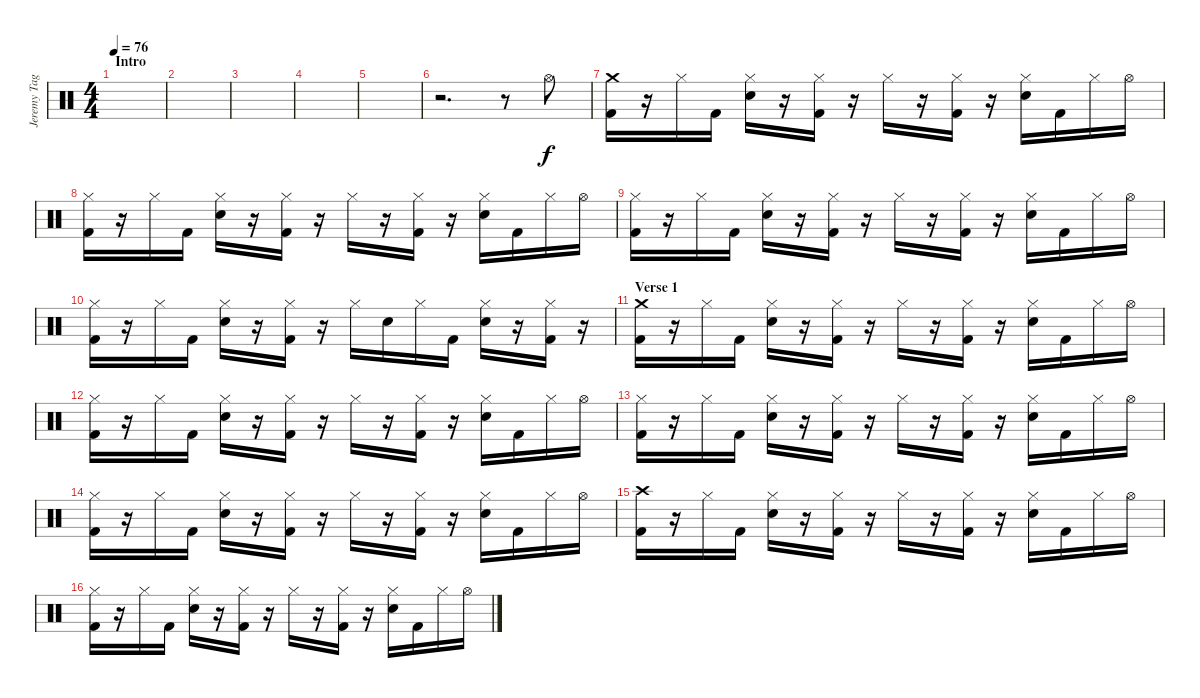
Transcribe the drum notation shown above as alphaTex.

\track ("Jeremy Taggart(Drums)" "Jeremy Tag") {instrument percussion}
\staff {score}
\articulation defaults
\ts (4 4)
\section ("" "Intro")
\tempo 76
\clef neutral
\ks c
|
|
|
|
|
r.2{d} r.8 "Hi-Hat (open)".8 |
("Crash medium (hit)" "Kick (hit) 2").16 r.16 "Hi-Hat (closed)".16 "Kick (hit) 2".16 ("Hi-Hat (closed)" "Snare (hit) 2").16 r.16 ("Hi-Hat (closed)" "Kick (hit) 2").16 r.16 "Hi-Hat (closed)".16 r.16 ("Hi-Hat (closed)" "Kick (hit) 2").16 r.16 ("Hi-Hat (closed)" "Snare (hit) 2").16 "Kick (hit) 2".16 "Hi-Hat (closed)".16 "Hi-Hat (open)".16 |
("Hi-Hat (closed)" "Kick (hit) 2").16 r.16 "Hi-Hat (closed)".16 "Kick (hit) 2".16 ("Hi-Hat (closed)" "Snare (hit) 2").16 r.16 ("Hi-Hat (closed)" "Kick (hit) 2").16 r.16 "Hi-Hat (closed)".16 r.16 ("Hi-Hat (closed)" "Kick (hit) 2").16 r.16 ("Hi-Hat (closed)" "Snare (hit) 2").16 "Kick (hit) 2".16 "Hi-Hat (closed)".16 "Hi-Hat (open)".16 |
("Hi-Hat (closed)" "Kick (hit) 2").16 r.16 "Hi-Hat (closed)".16 "Kick (hit) 2".16 ("Hi-Hat (closed)" "Snare (hit) 2").16 r.16 ("Hi-Hat (closed)" "Kick (hit) 2").16 r.16 "Hi-Hat (closed)".16 r.16 ("Hi-Hat (closed)" "Kick (hit) 2").16 r.16 ("Hi-Hat (closed)" "Snare (hit) 2").16 "Kick (hit) 2".16 "Hi-Hat (closed)".16 "Hi-Hat (open)".16 |
("Hi-Hat (closed)" "Kick (hit) 2").16 r.16 "Hi-Hat (closed)".16 "Kick (hit) 2".16 ("Hi-Hat (closed)" "Snare (hit) 2").16 r.16 ("Hi-Hat (closed)" "Kick (hit) 2").16 r.16 "Hi-Hat (closed)".16 "Snare (hit) 2".16 "Hi-Hat (closed)".16 "Kick (hit) 2".16 ("Hi-Hat (closed)" "Snare (hit) 2").16 r.16 ("Hi-Hat (closed)" "Kick (hit) 2").16 r.16 |
\section ("" "Verse 1")
("Crash medium (hit)" "Kick (hit) 2").16 r.16 "Hi-Hat (closed)".16 "Kick (hit) 2".16 ("Hi-Hat (closed)" "Snare (hit) 2").16 r.16 ("Hi-Hat (closed)" "Kick (hit) 2").16 r.16 "Hi-Hat (closed)".16 r.16 ("Hi-Hat (closed)" "Kick (hit) 2").16 r.16 ("Hi-Hat (closed)" "Snare (hit) 2").16 "Kick (hit) 2".16 "Hi-Hat (closed)".16 "Hi-Hat (open)".16 |
("Hi-Hat (closed)" "Kick (hit) 2").16 r.16 "Hi-Hat (closed)".16 "Kick (hit) 2".16 ("Hi-Hat (closed)" "Snare (hit) 2").16 r.16 ("Hi-Hat (closed)" "Kick (hit) 2").16 r.16 "Hi-Hat (closed)".16 r.16 ("Hi-Hat (closed)" "Kick (hit) 2").16 r.16 ("Hi-Hat (closed)" "Snare (hit) 2").16 "Kick (hit) 2".16 "Hi-Hat (closed)".16 "Hi-Hat (open)".16 |
("Hi-Hat (closed)" "Kick (hit) 2").16 r.16 "Hi-Hat (closed)".16 "Kick (hit) 2".16 ("Hi-Hat (closed)" "Snare (hit) 2").16 r.16 ("Hi-Hat (closed)" "Kick (hit) 2").16 r.16 "Hi-Hat (closed)".16 r.16 ("Hi-Hat (closed)" "Kick (hit) 2").16 r.16 ("Hi-Hat (closed)" "Snare (hit) 2").16 "Kick (hit) 2".16 "Hi-Hat (closed)".16 "Hi-Hat (open)".16 |
("Hi-Hat (closed)" "Kick (hit) 2").16 r.16 "Hi-Hat (closed)".16 "Kick (hit) 2".16 ("Hi-Hat (closed)" "Snare (hit) 2").16 r.16 ("Hi-Hat (closed)" "Kick (hit) 2").16 r.16 "Hi-Hat (closed)".16 r.16 ("Hi-Hat (closed)" "Kick (hit) 2").16 r.16 ("Hi-Hat (closed)" "Snare (hit) 2").16 "Kick (hit) 2".16 "Hi-Hat (closed)".16 "Hi-Hat (open)".16 |
("Crash high (hit)" "Kick (hit) 2").16 r.16 "Hi-Hat (closed)".16 "Kick (hit) 2".16 ("Hi-Hat (closed)" "Snare (hit) 2").16 r.16 ("Hi-Hat (closed)" "Kick (hit) 2").16 r.16 "Hi-Hat (closed)".16 r.16 ("Hi-Hat (closed)" "Kick (hit) 2").16 r.16 ("Hi-Hat (closed)" "Snare (hit) 2").16 "Kick (hit) 2".16 "Hi-Hat (closed)".16 "Hi-Hat (open)".16 |
("Hi-Hat (closed)" "Kick (hit) 2").16 r.16 "Hi-Hat (closed)".16 "Kick (hit) 2".16 ("Hi-Hat (closed)" "Snare (hit) 2").16 r.16 ("Hi-Hat (closed)" "Kick (hit) 2").16 r.16 "Hi-Hat (closed)".16 r.16 ("Hi-Hat (closed)" "Kick (hit) 2").16 r.16 ("Hi-Hat (closed)" "Snare (hit) 2").16 "Kick (hit) 2".16 "Hi-Hat (closed)".16 "Hi-Hat (open)".16
